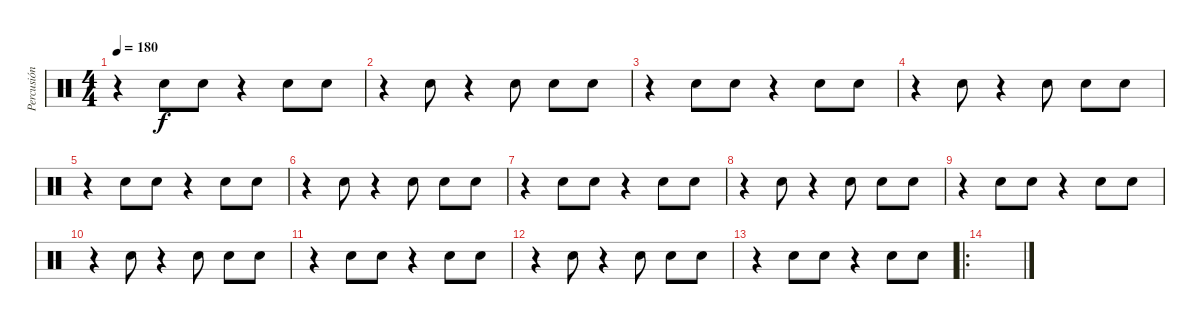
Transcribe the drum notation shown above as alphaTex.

\track ("Percusión" "Percusión") {instrument percussion}
\staff {score}
\articulation defaults
\ts (4 4)
\tempo 180
\clef neutral
\ks c
r.4{dy f} "Hand Clap (hit)".8 "Hand Clap (hit)".8 r.4 "Hand Clap (hit)".8 "Hand Clap (hit)".8 |
r.4 "Hand Clap (hit)".8 r.4 "Hand Clap (hit)".8 "Hand Clap (hit)".8 "Hand Clap (hit)".8 |
r.4 "Hand Clap (hit)".8 "Hand Clap (hit)".8 r.4 "Hand Clap (hit)".8 "Hand Clap (hit)".8 |
r.4 "Hand Clap (hit)".8 r.4 "Hand Clap (hit)".8 "Hand Clap (hit)".8 "Hand Clap (hit)".8 |
r.4 "Hand Clap (hit)".8 "Hand Clap (hit)".8 r.4 "Hand Clap (hit)".8 "Hand Clap (hit)".8 |
r.4 "Hand Clap (hit)".8 r.4 "Hand Clap (hit)".8 "Hand Clap (hit)".8 "Hand Clap (hit)".8 |
r.4 "Hand Clap (hit)".8 "Hand Clap (hit)".8 r.4 "Hand Clap (hit)".8 "Hand Clap (hit)".8 |
r.4 "Hand Clap (hit)".8 r.4 "Hand Clap (hit)".8 "Hand Clap (hit)".8 "Hand Clap (hit)".8 |
r.4 "Hand Clap (hit)".8 "Hand Clap (hit)".8 r.4 "Hand Clap (hit)".8 "Hand Clap (hit)".8 |
r.4 "Hand Clap (hit)".8 r.4 "Hand Clap (hit)".8 "Hand Clap (hit)".8 "Hand Clap (hit)".8 |
r.4 "Hand Clap (hit)".8 "Hand Clap (hit)".8 r.4 "Hand Clap (hit)".8 "Hand Clap (hit)".8 |
r.4 "Hand Clap (hit)".8 r.4 "Hand Clap (hit)".8 "Hand Clap (hit)".8 "Hand Clap (hit)".8 |
r.4 "Hand Clap (hit)".8 "Hand Clap (hit)".8 r.4 "Hand Clap (hit)".8 "Hand Clap (hit)".8 |
\ro
